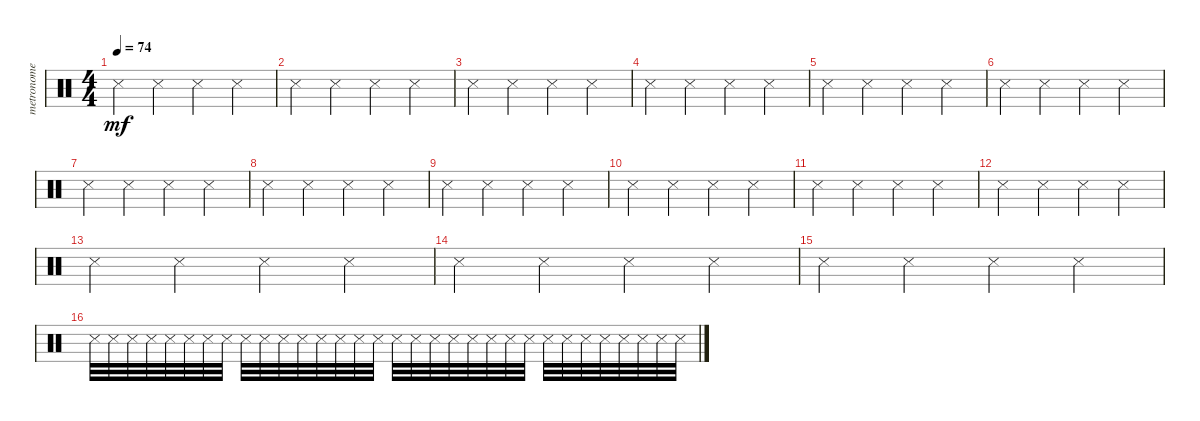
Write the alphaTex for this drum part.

\track ("metronome" "metronome") {instrument percussion}
\staff {score}
\articulation defaults
\ts (4 4)
\tempo 74
\clef neutral
\ks c "Snare (side stick) 3".4{dy mf} "Snare (side stick) 3".4 "Snare (side stick) 3".4 "Snare (side stick) 3".4
|
"Snare (side stick) 3".4 "Snare (side stick) 3".4 "Snare (side stick) 3".4 "Snare (side stick) 3".4 |
"Snare (side stick) 3".4 "Snare (side stick) 3".4 "Snare (side stick) 3".4 "Snare (side stick) 3".4 |
"Snare (side stick) 3".4 "Snare (side stick) 3".4 "Snare (side stick) 3".4 "Snare (side stick) 3".4 |
"Snare (side stick) 3".4 "Snare (side stick) 3".4 "Snare (side stick) 3".4 "Snare (side stick) 3".4 |
"Snare (side stick) 3".4 "Snare (side stick) 3".4 "Snare (side stick) 3".4 "Snare (side stick) 3".4 |
"Snare (side stick) 3".4 "Snare (side stick) 3".4 "Snare (side stick) 3".4 "Snare (side stick) 3".4 |
"Snare (side stick) 3".4 "Snare (side stick) 3".4 "Snare (side stick) 3".4 "Snare (side stick) 3".4 |
"Snare (side stick) 3".4 "Snare (side stick) 3".4 "Snare (side stick) 3".4 "Snare (side stick) 3".4 |
"Snare (side stick) 3".4 "Snare (side stick) 3".4 "Snare (side stick) 3".4 "Snare (side stick) 3".4 |
"Snare (side stick) 3".4 "Snare (side stick) 3".4 "Snare (side stick) 3".4 "Snare (side stick) 3".4 |
"Snare (side stick) 3".4 "Snare (side stick) 3".4 "Snare (side stick) 3".4 "Snare (side stick) 3".4 |
"Snare (side stick) 3".4 "Snare (side stick) 3".4 "Snare (side stick) 3".4 "Snare (side stick) 3".4 |
"Snare (side stick) 3".4 "Snare (side stick) 3".4 "Snare (side stick) 3".4 "Snare (side stick) 3".4 |
"Snare (side stick) 3".4 "Snare (side stick) 3".4 "Snare (side stick) 3".4 "Snare (side stick) 3".4 |
"Snare (side stick) 3".32 "Snare (side stick) 3".32 "Snare (side stick) 3".32 "Snare (side stick) 3".32 "Snare (side stick) 3".32 "Snare (side stick) 3".32 "Snare (side stick) 3".32 "Snare (side stick) 3".32 "Snare (side stick) 3".32 "Snare (side stick) 3".32 "Snare (side stick) 3".32 "Snare (side stick) 3".32 "Snare (side stick) 3".32 "Snare (side stick) 3".32 "Snare (side stick) 3".32 "Snare (side stick) 3".32 "Snare (side stick) 3".32 "Snare (side stick) 3".32 "Snare (side stick) 3".32 "Snare (side stick) 3".32 "Snare (side stick) 3".32 "Snare (side stick) 3".32 "Snare (side stick) 3".32 "Snare (side stick) 3".32 "Snare (side stick) 3".32 "Snare (side stick) 3".32 "Snare (side stick) 3".32 "Snare (side stick) 3".32 "Snare (side stick) 3".32 "Snare (side stick) 3".32 "Snare (side stick) 3".32 "Snare (side stick) 3".32
